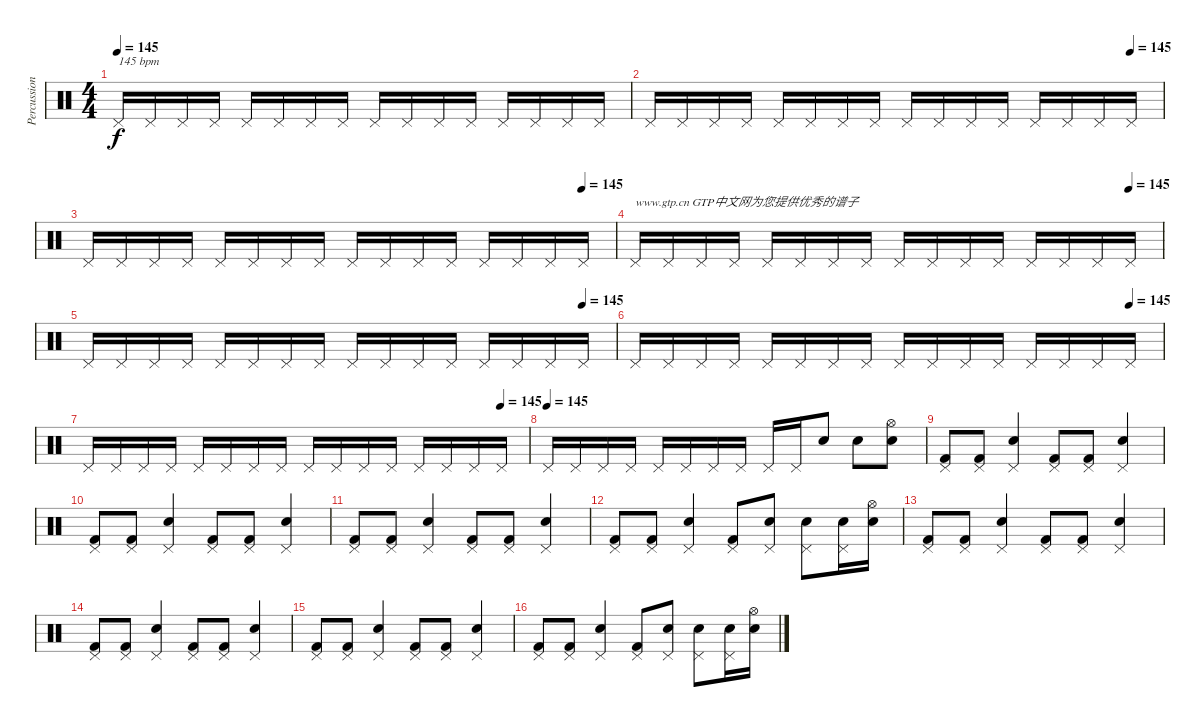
\track ("Percussion" "Percussion") {instrument percussion}
\staff {score}
\articulation defaults
\ts (4 4)
\tempo 145
\clef neutral
\ks c "Pedal Hi-Hat (hit)".16{txt "145 bpm" dy f} "Pedal Hi-Hat (hit)".16 "Pedal Hi-Hat (hit)".16 "Pedal Hi-Hat (hit)".16 "Pedal Hi-Hat (hit)".16 "Pedal Hi-Hat (hit)".16 "Pedal Hi-Hat (hit)".16 "Pedal Hi-Hat (hit)".16 "Pedal Hi-Hat (hit)".16 "Pedal Hi-Hat (hit)".16 "Pedal Hi-Hat (hit)".16 "Pedal Hi-Hat (hit)".16 "Pedal Hi-Hat (hit)".16 "Pedal Hi-Hat (hit)".16 "Pedal Hi-Hat (hit)".16 "Pedal Hi-Hat (hit)".16
|
\tempo (145 0.9375)
"Pedal Hi-Hat (hit)".16 "Pedal Hi-Hat (hit)".16 "Pedal Hi-Hat (hit)".16 "Pedal Hi-Hat (hit)".16 "Pedal Hi-Hat (hit)".16 "Pedal Hi-Hat (hit)".16 "Pedal Hi-Hat (hit)".16 "Pedal Hi-Hat (hit)".16 "Pedal Hi-Hat (hit)".16 "Pedal Hi-Hat (hit)".16 "Pedal Hi-Hat (hit)".16 "Pedal Hi-Hat (hit)".16 "Pedal Hi-Hat (hit)".16 "Pedal Hi-Hat (hit)".16 "Pedal Hi-Hat (hit)".16 "Pedal Hi-Hat (hit)".16 |
\tempo (145 0.9375)
"Pedal Hi-Hat (hit)".16 "Pedal Hi-Hat (hit)".16 "Pedal Hi-Hat (hit)".16 "Pedal Hi-Hat (hit)".16 "Pedal Hi-Hat (hit)".16 "Pedal Hi-Hat (hit)".16 "Pedal Hi-Hat (hit)".16 "Pedal Hi-Hat (hit)".16 "Pedal Hi-Hat (hit)".16 "Pedal Hi-Hat (hit)".16 "Pedal Hi-Hat (hit)".16 "Pedal Hi-Hat (hit)".16 "Pedal Hi-Hat (hit)".16 "Pedal Hi-Hat (hit)".16 "Pedal Hi-Hat (hit)".16 "Pedal Hi-Hat (hit)".16 |
\tempo (145 0.9375)
"Pedal Hi-Hat (hit)".16{txt "www.gtp.cn GTP中文网为您提供优秀的谱子"} "Pedal Hi-Hat (hit)".16 "Pedal Hi-Hat (hit)".16 "Pedal Hi-Hat (hit)".16 "Pedal Hi-Hat (hit)".16 "Pedal Hi-Hat (hit)".16 "Pedal Hi-Hat (hit)".16 "Pedal Hi-Hat (hit)".16 "Pedal Hi-Hat (hit)".16 "Pedal Hi-Hat (hit)".16 "Pedal Hi-Hat (hit)".16 "Pedal Hi-Hat (hit)".16 "Pedal Hi-Hat (hit)".16 "Pedal Hi-Hat (hit)".16 "Pedal Hi-Hat (hit)".16 "Pedal Hi-Hat (hit)".16 |
\tempo (145 0.9375)
"Pedal Hi-Hat (hit)".16 "Pedal Hi-Hat (hit)".16 "Pedal Hi-Hat (hit)".16 "Pedal Hi-Hat (hit)".16 "Pedal Hi-Hat (hit)".16 "Pedal Hi-Hat (hit)".16 "Pedal Hi-Hat (hit)".16 "Pedal Hi-Hat (hit)".16 "Pedal Hi-Hat (hit)".16 "Pedal Hi-Hat (hit)".16 "Pedal Hi-Hat (hit)".16 "Pedal Hi-Hat (hit)".16 "Pedal Hi-Hat (hit)".16 "Pedal Hi-Hat (hit)".16 "Pedal Hi-Hat (hit)".16 "Pedal Hi-Hat (hit)".16 |
\tempo (145 0.9375)
"Pedal Hi-Hat (hit)".16 "Pedal Hi-Hat (hit)".16 "Pedal Hi-Hat (hit)".16 "Pedal Hi-Hat (hit)".16 "Pedal Hi-Hat (hit)".16 "Pedal Hi-Hat (hit)".16 "Pedal Hi-Hat (hit)".16 "Pedal Hi-Hat (hit)".16 "Pedal Hi-Hat (hit)".16 "Pedal Hi-Hat (hit)".16 "Pedal Hi-Hat (hit)".16 "Pedal Hi-Hat (hit)".16 "Pedal Hi-Hat (hit)".16 "Pedal Hi-Hat (hit)".16 "Pedal Hi-Hat (hit)".16 "Pedal Hi-Hat (hit)".16 |
\tempo (145 0.9375)
"Pedal Hi-Hat (hit)".16 "Pedal Hi-Hat (hit)".16 "Pedal Hi-Hat (hit)".16 "Pedal Hi-Hat (hit)".16 "Pedal Hi-Hat (hit)".16 "Pedal Hi-Hat (hit)".16 "Pedal Hi-Hat (hit)".16 "Pedal Hi-Hat (hit)".16 "Pedal Hi-Hat (hit)".16 "Pedal Hi-Hat (hit)".16 "Pedal Hi-Hat (hit)".16 "Pedal Hi-Hat (hit)".16 "Pedal Hi-Hat (hit)".16 "Pedal Hi-Hat (hit)".16 "Pedal Hi-Hat (hit)".16 "Pedal Hi-Hat (hit)".16 |
\tempo (145)
"Pedal Hi-Hat (hit)".16 "Pedal Hi-Hat (hit)".16 "Pedal Hi-Hat (hit)".16 "Pedal Hi-Hat (hit)".16 "Pedal Hi-Hat (hit)".16 "Pedal Hi-Hat (hit)".16 "Pedal Hi-Hat (hit)".16 "Pedal Hi-Hat (hit)".16 "Pedal Hi-Hat (hit)".16 "Pedal Hi-Hat (hit)".16 "Snare (hit) 2".8 "Snare (hit) 2".8 ("Hi-Hat (open)" "Snare (hit) 2").8 |
("Pedal Hi-Hat (hit)" "Kick (hit) 2").8 ("Pedal Hi-Hat (hit)" "Kick (hit) 2").8 ("Pedal Hi-Hat (hit)" "Snare (hit) 2").4 ("Pedal Hi-Hat (hit)" "Kick (hit) 2").8 ("Pedal Hi-Hat (hit)" "Kick (hit) 2").8 ("Pedal Hi-Hat (hit)" "Snare (hit) 2").4 |
("Pedal Hi-Hat (hit)" "Kick (hit) 2").8 ("Pedal Hi-Hat (hit)" "Kick (hit) 2").8 ("Pedal Hi-Hat (hit)" "Snare (hit) 2").4 ("Pedal Hi-Hat (hit)" "Kick (hit) 2").8 ("Pedal Hi-Hat (hit)" "Kick (hit) 2").8 ("Pedal Hi-Hat (hit)" "Snare (hit) 2").4 |
("Pedal Hi-Hat (hit)" "Kick (hit) 2").8 ("Pedal Hi-Hat (hit)" "Kick (hit) 2").8 ("Pedal Hi-Hat (hit)" "Snare (hit) 2").4 ("Pedal Hi-Hat (hit)" "Kick (hit) 2").8 ("Pedal Hi-Hat (hit)" "Kick (hit) 2").8 ("Pedal Hi-Hat (hit)" "Snare (hit) 2").4 |
("Pedal Hi-Hat (hit)" "Kick (hit) 2").8 ("Pedal Hi-Hat (hit)" "Kick (hit) 2").8 ("Pedal Hi-Hat (hit)" "Snare (hit) 2").4 ("Pedal Hi-Hat (hit)" "Kick (hit) 2").8 ("Pedal Hi-Hat (hit)" "Snare (hit) 2").8 ("Pedal Hi-Hat (hit)" "Snare (hit) 2").8 ("Pedal Hi-Hat (hit)" "Snare (hit) 2").16 ("Hi-Hat (open)" "Snare (hit) 2").16 |
("Pedal Hi-Hat (hit)" "Kick (hit) 2").8 ("Pedal Hi-Hat (hit)" "Kick (hit) 2").8 ("Pedal Hi-Hat (hit)" "Snare (hit) 2").4 ("Pedal Hi-Hat (hit)" "Kick (hit) 2").8 ("Pedal Hi-Hat (hit)" "Kick (hit) 2").8 ("Pedal Hi-Hat (hit)" "Snare (hit) 2").4 |
("Pedal Hi-Hat (hit)" "Kick (hit) 2").8 ("Pedal Hi-Hat (hit)" "Kick (hit) 2").8 ("Pedal Hi-Hat (hit)" "Snare (hit) 2").4 ("Pedal Hi-Hat (hit)" "Kick (hit) 2").8 ("Pedal Hi-Hat (hit)" "Kick (hit) 2").8 ("Pedal Hi-Hat (hit)" "Snare (hit) 2").4 |
("Pedal Hi-Hat (hit)" "Kick (hit) 2").8 ("Pedal Hi-Hat (hit)" "Kick (hit) 2").8 ("Pedal Hi-Hat (hit)" "Snare (hit) 2").4 ("Pedal Hi-Hat (hit)" "Kick (hit) 2").8 ("Pedal Hi-Hat (hit)" "Kick (hit) 2").8 ("Pedal Hi-Hat (hit)" "Snare (hit) 2").4 |
("Pedal Hi-Hat (hit)" "Kick (hit) 2").8 ("Pedal Hi-Hat (hit)" "Kick (hit) 2").8 ("Pedal Hi-Hat (hit)" "Snare (hit) 2").4 ("Pedal Hi-Hat (hit)" "Kick (hit) 2").8 ("Pedal Hi-Hat (hit)" "Snare (hit) 2").8 ("Pedal Hi-Hat (hit)" "Snare (hit) 2").8 ("Pedal Hi-Hat (hit)" "Snare (hit) 2").16 ("Hi-Hat (open)" "Snare (hit) 2").16
